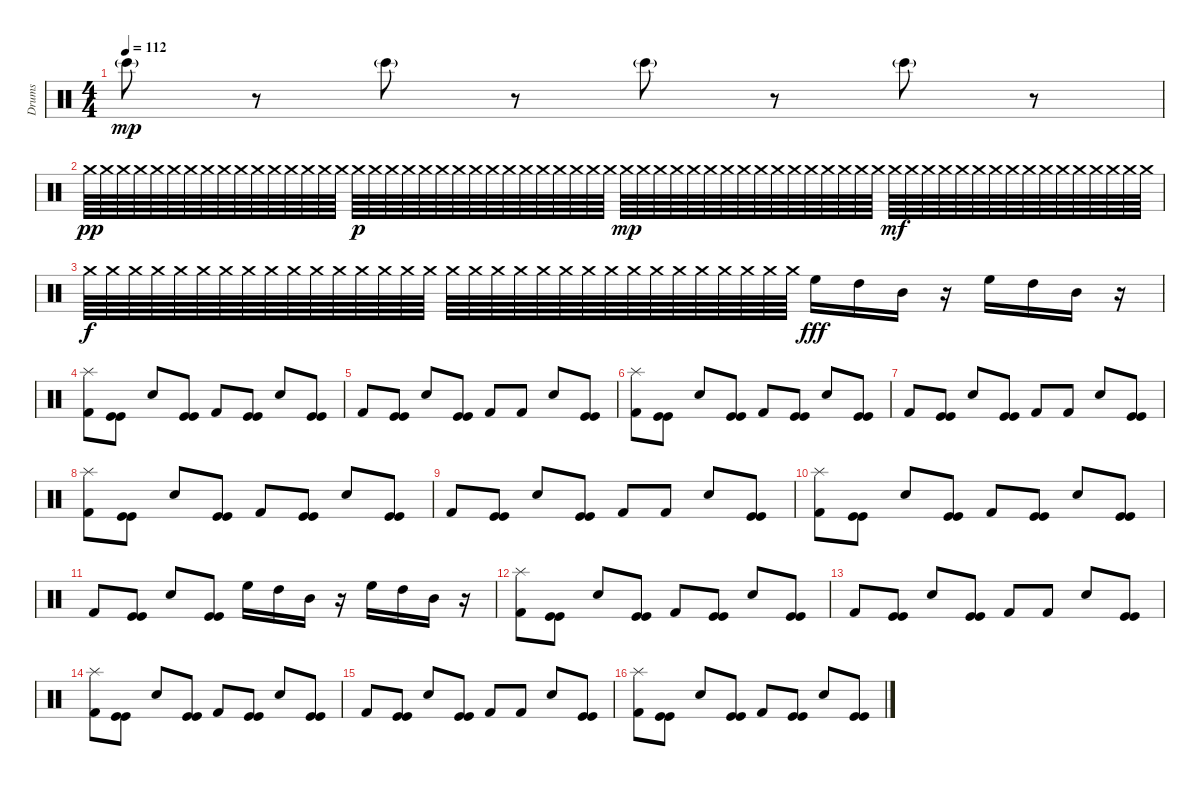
\track ("Drums" "Drums") {instrument percussion}
\staff {score}
\articulation defaults
\ts (4 4)
\tempo 112
\clef neutral
\ks c "Bongo High (hit)"{g}.8{dy mp}
r.8 "Bongo High (hit)"{g}.8 r.8 "Bongo High (hit)"{g}.8 r.8 "Bongo High (hit)"{g}.8 r.8 |
"Crash medium (hit)".64{dy pp} "Crash medium (hit)".64 "Crash medium (hit)".64 "Crash medium (hit)".64 "Crash medium (hit)".64 "Crash medium (hit)".64 "Crash medium (hit)".64 "Crash medium (hit)".64 "Crash medium (hit)".64 "Crash medium (hit)".64 "Crash medium (hit)".64 "Crash medium (hit)".64 "Crash medium (hit)".64 "Crash medium (hit)".64 "Crash medium (hit)".64 "Crash medium (hit)".64 "Crash medium (hit)".64{dy p} "Crash medium (hit)".64 "Crash medium (hit)".64 "Crash medium (hit)".64 "Crash medium (hit)".64 "Crash medium (hit)".64 "Crash medium (hit)".64 "Crash medium (hit)".64 "Crash medium (hit)".64 "Crash medium (hit)".64 "Crash medium (hit)".64 "Crash medium (hit)".64 "Crash medium (hit)".64 "Crash medium (hit)".64 "Crash medium (hit)".64 "Crash medium (hit)".64 "Crash medium (hit)".64{dy mp} "Crash medium (hit)".64 "Crash medium (hit)".64 "Crash medium (hit)".64 "Crash medium (hit)".64 "Crash medium (hit)".64 "Crash medium (hit)".64 "Crash medium (hit)".64 "Crash medium (hit)".64 "Crash medium (hit)".64 "Crash medium (hit)".64 "Crash medium (hit)".64 "Crash medium (hit)".64 "Crash medium (hit)".64 "Crash medium (hit)".64 "Crash medium (hit)".64 "Crash medium (hit)".64{dy mf} "Crash medium (hit)".64 "Crash medium (hit)".64 "Crash medium (hit)".64 "Crash medium (hit)".64 "Crash medium (hit)".64 "Crash medium (hit)".64 "Crash medium (hit)".64 "Crash medium (hit)".64 "Crash medium (hit)".64 "Crash medium (hit)".64 "Crash medium (hit)".64 "Crash medium (hit)".64 "Crash medium (hit)".64 "Crash medium (hit)".64 "Crash medium (hit)".64 |
"Crash medium (hit)".64{dy f} "Crash medium (hit)".64 "Crash medium (hit)".64 "Crash medium (hit)".64 "Crash medium (hit)".64 "Crash medium (hit)".64 "Crash medium (hit)".64 "Crash medium (hit)".64 "Crash medium (hit)".64 "Crash medium (hit)".64 "Crash medium (hit)".64 "Crash medium (hit)".64 "Crash medium (hit)".64 "Crash medium (hit)".64 "Crash medium (hit)".64 "Crash medium (hit)".64 "Crash medium (hit)".64 "Crash medium (hit)".64 "Crash medium (hit)".64 "Crash medium (hit)".64 "Crash medium (hit)".64 "Crash medium (hit)".64 "Crash medium (hit)".64 "Crash medium (hit)".64 "Crash medium (hit)".64 "Crash medium (hit)".64 "Crash medium (hit)".64 "Crash medium (hit)".64 "Crash medium (hit)".64 "Crash medium (hit)".64 "Crash medium (hit)".64 "Crash medium (hit)".64 "High Floor Tom (hit)".16{dy fff} "High Tom (hit)".16 "Mid Tom (hit)".16 r.16 "High Floor Tom (hit)".16 "High Tom (hit)".16 "Mid Tom (hit)".16 r.16 |
("Kick (hit) 2" "Splash (hit)").8 ("Kick (hit)" "Kick (hit)").8 "Snare (hit) 2".8 ("Kick (hit)" "Kick (hit)").8 "Kick (hit) 2".8 ("Kick (hit)" "Kick (hit)").8 "Snare (hit) 2".8 ("Kick (hit)" "Kick (hit)").8 |
"Kick (hit) 2".8 ("Kick (hit)" "Kick (hit)").8 "Snare (hit) 2".8 ("Kick (hit)" "Kick (hit)").8 "Kick (hit) 2".8 "Kick (hit) 2".8 "Snare (hit) 2".8 ("Kick (hit)" "Kick (hit)").8 |
("Kick (hit) 2" "Splash (hit)").8 ("Kick (hit)" "Kick (hit)").8 "Snare (hit) 2".8 ("Kick (hit)" "Kick (hit)").8 "Kick (hit) 2".8 ("Kick (hit)" "Kick (hit)").8 "Snare (hit) 2".8 ("Kick (hit)" "Kick (hit)").8 |
"Kick (hit) 2".8 ("Kick (hit)" "Kick (hit)").8 "Snare (hit) 2".8 ("Kick (hit)" "Kick (hit)").8 "Kick (hit) 2".8 "Kick (hit) 2".8 "Snare (hit) 2".8 ("Kick (hit)" "Kick (hit)").8 |
("Kick (hit) 2" "Splash (hit)").8 ("Kick (hit)" "Kick (hit)").8 "Snare (hit) 2".8 ("Kick (hit)" "Kick (hit)").8 "Kick (hit) 2".8 ("Kick (hit)" "Kick (hit)").8 "Snare (hit) 2".8 ("Kick (hit)" "Kick (hit)").8 |
"Kick (hit) 2".8 ("Kick (hit)" "Kick (hit)").8 "Snare (hit) 2".8 ("Kick (hit)" "Kick (hit)").8 "Kick (hit) 2".8 "Kick (hit) 2".8 "Snare (hit) 2".8 ("Kick (hit)" "Kick (hit)").8 |
("Kick (hit) 2" "Splash (hit)").8 ("Kick (hit)" "Kick (hit)").8 "Snare (hit) 2".8 ("Kick (hit)" "Kick (hit)").8 "Kick (hit) 2".8 ("Kick (hit)" "Kick (hit)").8 "Snare (hit) 2".8 ("Kick (hit)" "Kick (hit)").8 |
"Kick (hit) 2".8 ("Kick (hit)" "Kick (hit)").8 "Snare (hit) 2".8 ("Kick (hit)" "Kick (hit)").8 "High Floor Tom (hit)".16 "High Tom (hit)".16 "Mid Tom (hit)".16 r.16 "High Floor Tom (hit)".16 "High Tom (hit)".16 "Mid Tom (hit)".16 r.16 |
("Kick (hit) 2" "Splash (hit)").8 ("Kick (hit)" "Kick (hit)").8 "Snare (hit) 2".8 ("Kick (hit)" "Kick (hit)").8 "Kick (hit) 2".8 ("Kick (hit)" "Kick (hit)").8 "Snare (hit) 2".8 ("Kick (hit)" "Kick (hit)").8 |
"Kick (hit) 2".8 ("Kick (hit)" "Kick (hit)").8 "Snare (hit) 2".8 ("Kick (hit)" "Kick (hit)").8 "Kick (hit) 2".8 "Kick (hit) 2".8 "Snare (hit) 2".8 ("Kick (hit)" "Kick (hit)").8 |
("Kick (hit) 2" "Splash (hit)").8 ("Kick (hit)" "Kick (hit)").8 "Snare (hit) 2".8 ("Kick (hit)" "Kick (hit)").8 "Kick (hit) 2".8 ("Kick (hit)" "Kick (hit)").8 "Snare (hit) 2".8 ("Kick (hit)" "Kick (hit)").8 |
"Kick (hit) 2".8 ("Kick (hit)" "Kick (hit)").8 "Snare (hit) 2".8 ("Kick (hit)" "Kick (hit)").8 "Kick (hit) 2".8 "Kick (hit) 2".8 "Snare (hit) 2".8 ("Kick (hit)" "Kick (hit)").8 |
("Kick (hit) 2" "Splash (hit)").8 ("Kick (hit)" "Kick (hit)").8 "Snare (hit) 2".8 ("Kick (hit)" "Kick (hit)").8 "Kick (hit) 2".8 ("Kick (hit)" "Kick (hit)").8 "Snare (hit) 2".8 ("Kick (hit)" "Kick (hit)").8
